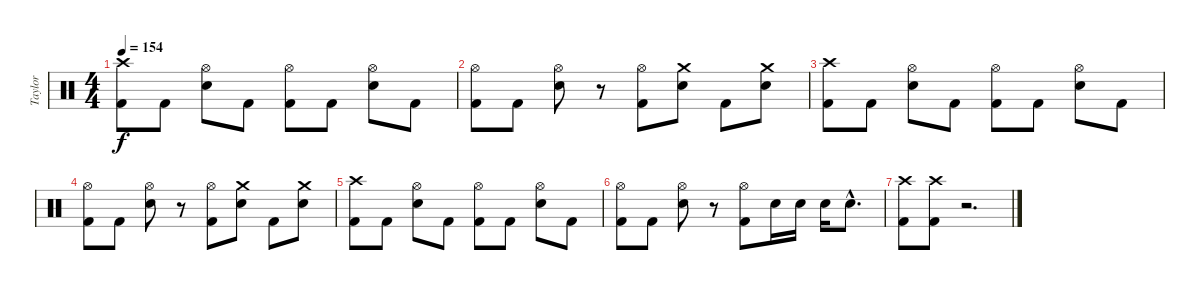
\track ("Taylor" "Taylor") {instrument percussion}
\staff {score}
\articulation defaults
\ts (4 4)
\tempo 154
\clef neutral
\ks c
("Crash high (hit)" "Kick (hit) 2").8{dy f} "Kick (hit) 2".8 ("Hi-Hat (open)" "Snare (hit) 2").8 "Kick (hit) 2".8 ("Hi-Hat (open)" "Kick (hit) 2").8 "Kick (hit) 2".8 ("Hi-Hat (open)" "Snare (hit) 2").8 "Kick (hit) 2".8 |
("Hi-Hat (open)" "Kick (hit) 2").8 "Kick (hit) 2".8 ("Hi-Hat (open)" "Snare (hit) 2").8 r.8 ("Hi-Hat (open)" "Kick (hit) 2").8 ("Crash medium (hit)" "Snare (hit) 2").8 "Kick (hit) 2".8 ("Crash medium (hit)" "Snare (hit) 2").8 |
("Crash high (hit)" "Kick (hit) 2").8 "Kick (hit) 2".8 ("Hi-Hat (open)" "Snare (hit) 2").8 "Kick (hit) 2".8 ("Hi-Hat (open)" "Kick (hit) 2").8 "Kick (hit) 2".8 ("Hi-Hat (open)" "Snare (hit) 2").8 "Kick (hit) 2".8 |
("Hi-Hat (open)" "Kick (hit) 2").8 "Kick (hit) 2".8 ("Hi-Hat (open)" "Snare (hit) 2").8 r.8 ("Hi-Hat (open)" "Kick (hit) 2").8 ("Crash medium (hit)" "Snare (hit) 2").8 "Kick (hit) 2".8 ("Crash medium (hit)" "Snare (hit) 2").8 |
("Crash high (hit)" "Kick (hit) 2").8 "Kick (hit) 2".8 ("Hi-Hat (open)" "Snare (hit) 2").8 "Kick (hit) 2".8 ("Hi-Hat (open)" "Kick (hit) 2").8 "Kick (hit) 2".8 ("Hi-Hat (open)" "Snare (hit) 2").8 "Kick (hit) 2".8 |
("Hi-Hat (open)" "Kick (hit) 2").8 "Kick (hit) 2".8 ("Hi-Hat (open)" "Snare (hit) 2").8 r.8 ("Hi-Hat (open)" "Kick (hit) 2").8 "Snare (hit) 2".16 "Snare (hit) 2".16 "Snare (hit) 2".16 "Snare (hit) 2"{hac}.8{d} |
("Crash high (hit)" "Kick (hit) 2").8 ("Crash high (hit)" "Kick (hit) 2").8 r.2{d}
